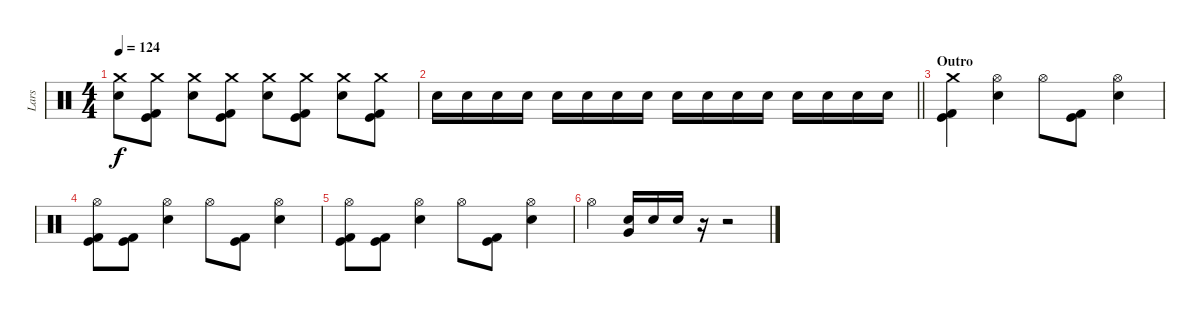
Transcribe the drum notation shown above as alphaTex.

\track ("Lars" "Lars") {instrument percussion}
\staff {score}
\articulation defaults
\ts (4 4)
\tempo 124
\clef neutral
\ks c
("Crash medium (hit)" "Electric Snare (hit)").8{dy f} ("Crash medium (hit)" "Kick (hit)" "Kick (hit) 2").8 ("Crash medium (hit)" "Electric Snare (hit)").8 ("Crash medium (hit)" "Kick (hit)" "Kick (hit) 2").8 ("Crash medium (hit)" "Electric Snare (hit)").8 ("Crash medium (hit)" "Kick (hit)" "Kick (hit) 2").8 ("Crash medium (hit)" "Electric Snare (hit)").8 ("Crash medium (hit)" "Kick (hit)" "Kick (hit) 2").8 |
\barLineRight lightlight "Electric Snare (hit)".16 "Electric Snare (hit)".16 "Electric Snare (hit)".16 "Electric Snare (hit)".16 "Electric Snare (hit)".16 "Electric Snare (hit)".16 "Electric Snare (hit)".16 "Electric Snare (hit)".16 "Electric Snare (hit)".16 "Electric Snare (hit)".16 "Electric Snare (hit)".16 "Electric Snare (hit)".16 "Electric Snare (hit)".16 "Electric Snare (hit)".16 "Electric Snare (hit)".16 "Electric Snare (hit)".16
|
\section ("" "Outro")
("Crash medium (hit)" "Kick (hit)" "Kick (hit) 2").4 ("Hi-Hat (open)" "Electric Snare (hit)").4 "Hi-Hat (open)".8 ("Kick (hit)" "Kick (hit) 2").8 ("Hi-Hat (open)" "Electric Snare (hit)").4 |
("Hi-Hat (open)" "Kick (hit)" "Kick (hit) 2").8 ("Kick (hit)" "Kick (hit) 2").8 ("Hi-Hat (open)" "Electric Snare (hit)").4 "Hi-Hat (open)".8 ("Kick (hit)" "Kick (hit) 2").8 ("Hi-Hat (open)" "Electric Snare (hit)").4 |
("Hi-Hat (open)" "Kick (hit)" "Kick (hit) 2").8 ("Kick (hit)" "Kick (hit) 2").8 ("Hi-Hat (open)" "Electric Snare (hit)").4 "Hi-Hat (open)".8 ("Kick (hit)" "Kick (hit) 2").8 ("Hi-Hat (open)" "Electric Snare (hit)").4 |
"Hi-Hat (open)".4 ("Electric Snare (hit)" "Very Low Tom (hit)").16 "Electric Snare (hit)".16 "Electric Snare (hit)".16 r.16 r.2
